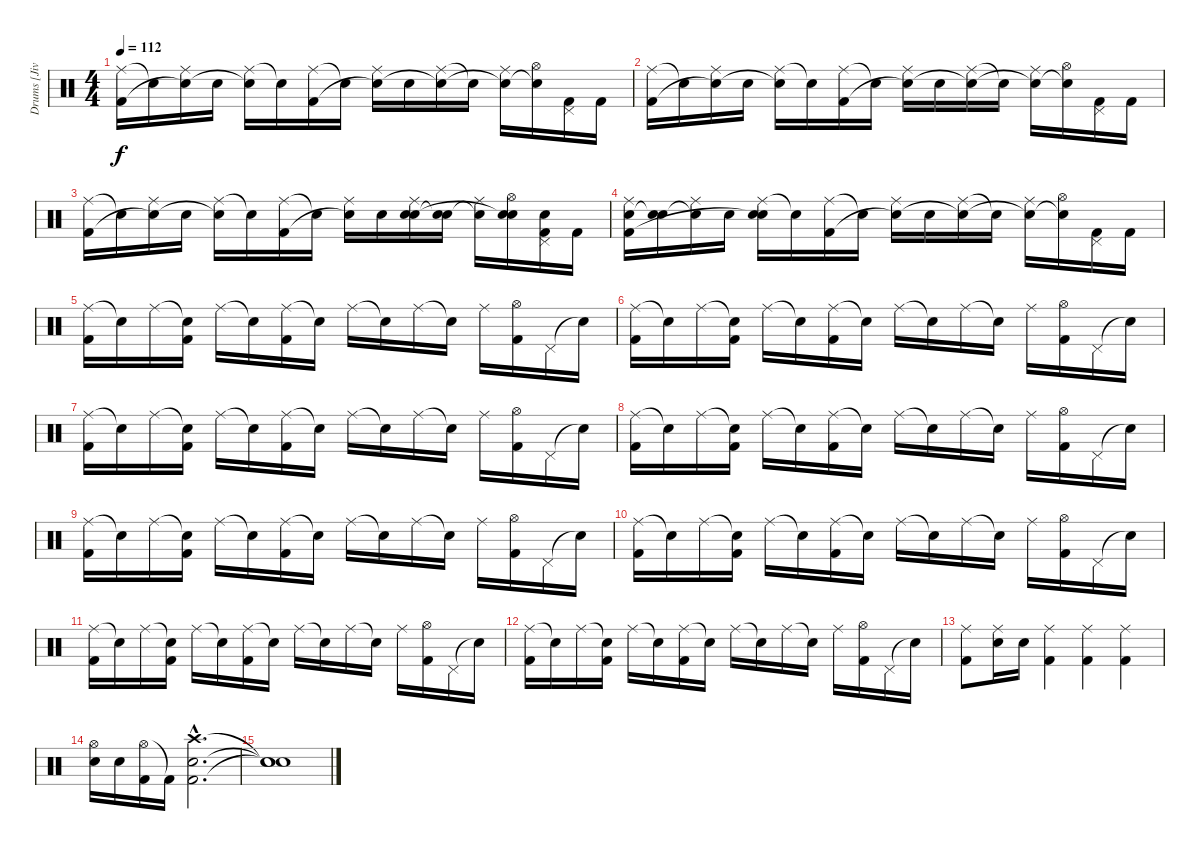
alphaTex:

\track ("Drums [Jivarp]" "Drums [Jiv") {instrument percussion}
\staff {score}
\articulation defaults
\ts (4 4)
\tempo 112
\clef neutral
\ks c
("Ride (middle)" "Kick (hit) 2").16{dy f} "Snare (hit)"{t}.16 ("Ride (middle)" "Snare (hit)"{t}).16 "Electric Snare (hit)".16 ("Ride (middle)" "Snare (hit)"{t}).16 "Snare (hit)"{t}.16 ("Ride (middle)" "Kick (hit) 2").16 "Snare (hit)"{t}.16 ("Ride (middle)" "Snare (hit)"{t}).16 "Electric Snare (hit)".16 ("Ride (middle)" "Snare (hit)"{t}).16 "Snare (hit)"{t}.16 ("Ride (middle)" "Snare (hit)"{t}).16 ("Hi-Hat (open)" "Snare (hit)"{t}).16 ("Pedal Hi-Hat (hit)" "Kick (hit) 2").16 "Kick (hit) 2".16 |
("Ride (middle)" "Kick (hit) 2").16 "Snare (hit)"{t}.16 ("Ride (middle)" "Snare (hit)"{t}).16 "Electric Snare (hit)".16 ("Ride (middle)" "Snare (hit)"{t}).16 "Snare (hit)"{t}.16 ("Ride (middle)" "Kick (hit) 2").16 "Snare (hit)"{t}.16 ("Ride (middle)" "Snare (hit)"{t}).16 "Electric Snare (hit)".16 ("Ride (middle)" "Snare (hit)"{t}).16 "Snare (hit)"{t}.16 ("Ride (middle)" "Snare (hit)"{t}).16 ("Hi-Hat (open)" "Snare (hit)"{t}).16 ("Pedal Hi-Hat (hit)" "Kick (hit) 2").16 "Kick (hit) 2".16 |
("Ride (middle)" "Kick (hit) 2").16 "Snare (hit)"{t}.16 ("Ride (middle)" "Snare (hit)"{t}).16 "Electric Snare (hit)".16 ("Ride (middle)" "Snare (hit)"{t}).16 "Snare (hit)"{t}.16 ("Ride (middle)" "Kick (hit) 2").16 "Snare (hit)"{t}.16 ("Ride (middle)" "Snare (hit)"{t}).16 "Electric Snare (hit)".16 ("Ride (middle)" "Electric Snare (hit)" "Snare (hit)").16 ("Electric Snare (hit)" "Snare (hit)"{t}).16 ("Ride (middle)" "Snare (hit)"{t}).16 ("Hi-Hat (open)" "Electric Snare (hit)" "Snare (hit)"{t}).16 ("Pedal Hi-Hat (hit)" "Electric Snare (hit)" "Kick (hit) 2").16 "Kick (hit) 2".16 |
("Ride (middle)" "Electric Snare (hit)" "Kick (hit) 2").16 ("Electric Snare (hit)" "Snare (hit)"{t}).16 ("Ride (middle)" "Snare (hit)"{t}).16 "Electric Snare (hit)".16 ("Ride (middle)" "Electric Snare (hit)" "Snare (hit)"{t}).16 "Snare (hit)"{t}.16 ("Ride (middle)" "Kick (hit) 2").16 "Snare (hit)"{t}.16 ("Ride (middle)" "Snare (hit)"{t}).16 "Electric Snare (hit)".16 ("Ride (middle)" "Snare (hit)"{t}).16 "Snare (hit)"{t}.16 ("Ride (middle)" "Snare (hit)"{t}).16 ("Hi-Hat (open)" "Snare (hit)"{t}).16 ("Pedal Hi-Hat (hit)" "Kick (hit) 2").16 "Kick (hit) 2".16 |
("Ride (middle)" "Kick (hit) 2").16 "Snare (hit)"{t}.16 "Ride (middle)".16 ("Snare (hit)"{t} "Kick (hit) 2").16 "Ride (middle)".16 "Snare (hit)"{t}.16 ("Ride (middle)" "Kick (hit) 2").16 "Snare (hit)"{t}.16 "Ride (middle)".16 "Snare (hit)"{t}.16 "Ride (middle)".16 "Snare (hit)"{t}.16 "Ride (middle)".16 ("Hi-Hat (open)" "Kick (hit) 2").16 "Pedal Hi-Hat (hit)".16 "Snare (hit)"{t}.16 |
("Ride (middle)" "Kick (hit) 2").16 "Snare (hit)"{t}.16 "Ride (middle)".16 ("Snare (hit)"{t} "Kick (hit) 2").16 "Ride (middle)".16 "Snare (hit)"{t}.16 ("Ride (middle)" "Kick (hit) 2").16 "Snare (hit)"{t}.16 "Ride (middle)".16 "Snare (hit)"{t}.16 "Ride (middle)".16 "Snare (hit)"{t}.16 "Ride (middle)".16 ("Hi-Hat (open)" "Kick (hit) 2").16 "Pedal Hi-Hat (hit)".16 "Snare (hit)"{t}.16 |
("Ride (middle)" "Kick (hit) 2").16 "Snare (hit)"{t}.16 "Ride (middle)".16 ("Snare (hit)"{t} "Kick (hit) 2").16 "Ride (middle)".16 "Snare (hit)"{t}.16 ("Ride (middle)" "Kick (hit) 2").16 "Snare (hit)"{t}.16 "Ride (middle)".16 "Snare (hit)"{t}.16 "Ride (middle)".16 "Snare (hit)"{t}.16 "Ride (middle)".16 ("Hi-Hat (open)" "Kick (hit) 2").16 "Pedal Hi-Hat (hit)".16 "Snare (hit)"{t}.16 |
("Ride (middle)" "Kick (hit) 2").16 "Snare (hit)"{t}.16 "Ride (middle)".16 ("Snare (hit)"{t} "Kick (hit) 2").16 "Ride (middle)".16 "Snare (hit)"{t}.16 ("Ride (middle)" "Kick (hit) 2").16 "Snare (hit)"{t}.16 "Ride (middle)".16 "Snare (hit)"{t}.16 "Ride (middle)".16 "Snare (hit)"{t}.16 "Ride (middle)".16 ("Hi-Hat (open)" "Kick (hit) 2").16 "Pedal Hi-Hat (hit)".16 "Snare (hit)"{t}.16 |
("Ride (middle)" "Kick (hit) 2").16 "Snare (hit)"{t}.16 "Ride (middle)".16 ("Snare (hit)"{t} "Kick (hit) 2").16 "Ride (middle)".16 "Snare (hit)"{t}.16 ("Ride (middle)" "Kick (hit) 2").16 "Snare (hit)"{t}.16 "Ride (middle)".16 "Snare (hit)"{t}.16 "Ride (middle)".16 "Snare (hit)"{t}.16 "Ride (middle)".16 ("Hi-Hat (open)" "Kick (hit) 2").16 "Pedal Hi-Hat (hit)".16 "Snare (hit)"{t}.16 |
("Ride (middle)" "Kick (hit) 2").16 "Snare (hit)"{t}.16 "Ride (middle)".16 ("Snare (hit)"{t} "Kick (hit) 2").16 "Ride (middle)".16 "Snare (hit)"{t}.16 ("Ride (middle)" "Kick (hit) 2").16 "Snare (hit)"{t}.16 "Ride (middle)".16 "Snare (hit)"{t}.16 "Ride (middle)".16 "Snare (hit)"{t}.16 "Ride (middle)".16 ("Hi-Hat (open)" "Kick (hit) 2").16 "Pedal Hi-Hat (hit)".16 "Snare (hit)"{t}.16 |
("Ride (middle)" "Kick (hit) 2").16 "Snare (hit)"{t}.16 "Ride (middle)".16 ("Snare (hit)"{t} "Kick (hit) 2").16 "Ride (middle)".16 "Snare (hit)"{t}.16 ("Ride (middle)" "Kick (hit) 2").16 "Snare (hit)"{t}.16 "Ride (middle)".16 "Snare (hit)"{t}.16 "Ride (middle)".16 "Snare (hit)"{t}.16 "Ride (middle)".16 ("Hi-Hat (open)" "Kick (hit) 2").16 "Pedal Hi-Hat (hit)".16 "Snare (hit)"{t}.16 |
("Ride (middle)" "Kick (hit) 2").16 "Snare (hit)"{t}.16 "Ride (middle)".16 ("Snare (hit)"{t} "Kick (hit) 2").16 "Ride (middle)".16 "Snare (hit)"{t}.16 ("Ride (middle)" "Kick (hit) 2").16 "Snare (hit)"{t}.16 "Ride (middle)".16 "Snare (hit)"{t}.16 "Ride (middle)".16 "Snare (hit)"{t}.16 "Ride (middle)".16 ("Hi-Hat (open)" "Kick (hit) 2").16 "Pedal Hi-Hat (hit)".16 "Snare (hit)"{t}.16 |
("Ride (middle)" "Kick (hit) 2").8 ("Ride (middle)" "Electric Snare (hit)").16 "Electric Snare (hit)".16 ("Ride (middle)" "Kick (hit) 2").4 ("Ride (middle)" "Kick (hit) 2").4 ("Ride (middle)" "Kick (hit) 2").4 |
("Hi-Hat (open)" "Electric Snare (hit)").16 "Electric Snare (hit)".16 ("Hi-Hat (open)" "Kick (hit) 2").16 "Kick (hit) 2"{t}.16 ("Crash high (hit)"{hac} "Electric Snare (hit)"{hac} "Kick (hit) 2"{hac}).2{d} |
("Snare (hit)"{t} "Snare (hit)"{t} "Snare (hit)"{t}).1
